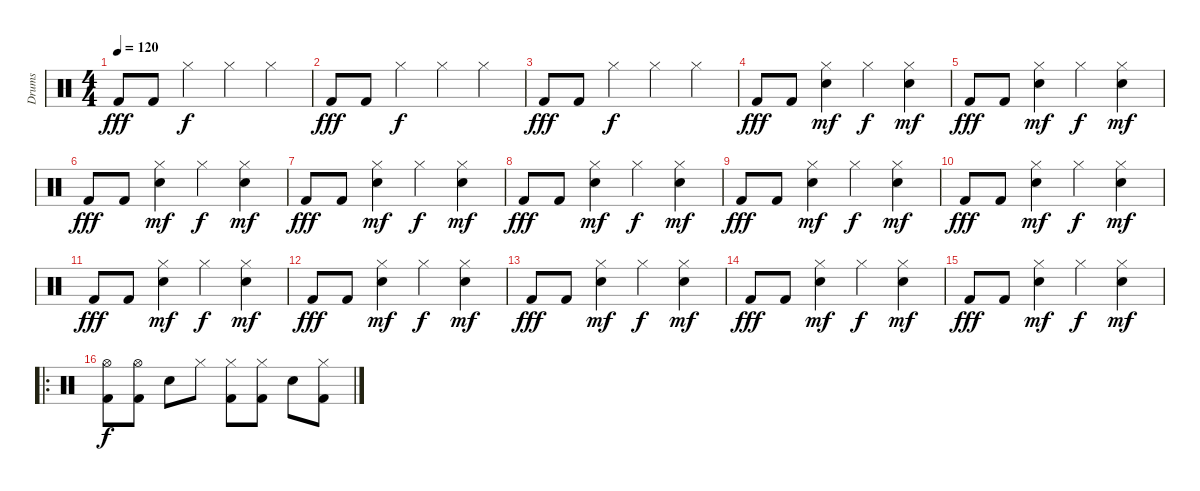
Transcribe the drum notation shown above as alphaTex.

\track ("Drums" "Drums") {instrument percussion}
\staff {score}
\articulation defaults
\ts (4 4)
\tempo 120
\clef neutral
\ks c "Kick (hit) 2".8{dy fff} "Kick (hit) 2".8 "Hi-Hat (closed)".4{dy f} "Hi-Hat (closed)".4 "Hi-Hat (closed)".4
|
"Kick (hit) 2".8{dy fff} "Kick (hit) 2".8 "Hi-Hat (closed)".4{dy f} "Hi-Hat (closed)".4 "Hi-Hat (closed)".4 |
"Kick (hit) 2".8{dy fff} "Kick (hit) 2".8 "Hi-Hat (closed)".4{dy f} "Hi-Hat (closed)".4 "Hi-Hat (closed)".4 |
"Kick (hit) 2".8{dy fff} "Kick (hit) 2".8 ("Hi-Hat (closed)" "Electric Snare (hit)").4{dy mf} "Hi-Hat (closed)".4{dy f} ("Hi-Hat (closed)" "Electric Snare (hit)").4{dy mf} |
"Kick (hit) 2".8{dy fff} "Kick (hit) 2".8 ("Hi-Hat (closed)" "Electric Snare (hit)").4{dy mf} "Hi-Hat (closed)".4{dy f} ("Hi-Hat (closed)" "Electric Snare (hit)").4{dy mf} |
"Kick (hit) 2".8{dy fff} "Kick (hit) 2".8 ("Hi-Hat (closed)" "Electric Snare (hit)").4{dy mf} "Hi-Hat (closed)".4{dy f} ("Hi-Hat (closed)" "Electric Snare (hit)").4{dy mf} |
"Kick (hit) 2".8{dy fff} "Kick (hit) 2".8 ("Hi-Hat (closed)" "Electric Snare (hit)").4{dy mf} "Hi-Hat (closed)".4{dy f} ("Hi-Hat (closed)" "Electric Snare (hit)").4{dy mf} |
"Kick (hit) 2".8{dy fff} "Kick (hit) 2".8 ("Hi-Hat (closed)" "Electric Snare (hit)").4{dy mf} "Hi-Hat (closed)".4{dy f} ("Hi-Hat (closed)" "Electric Snare (hit)").4{dy mf} |
"Kick (hit) 2".8{dy fff} "Kick (hit) 2".8 ("Hi-Hat (closed)" "Electric Snare (hit)").4{dy mf} "Hi-Hat (closed)".4{dy f} ("Hi-Hat (closed)" "Electric Snare (hit)").4{dy mf} |
"Kick (hit) 2".8{dy fff} "Kick (hit) 2".8 ("Hi-Hat (closed)" "Electric Snare (hit)").4{dy mf} "Hi-Hat (closed)".4{dy f} ("Hi-Hat (closed)" "Electric Snare (hit)").4{dy mf} |
"Kick (hit) 2".8{dy fff} "Kick (hit) 2".8 ("Hi-Hat (closed)" "Electric Snare (hit)").4{dy mf} "Hi-Hat (closed)".4{dy f} ("Hi-Hat (closed)" "Electric Snare (hit)").4{dy mf} |
"Kick (hit) 2".8{dy fff} "Kick (hit) 2".8 ("Hi-Hat (closed)" "Electric Snare (hit)").4{dy mf} "Hi-Hat (closed)".4{dy f} ("Hi-Hat (closed)" "Electric Snare (hit)").4{dy mf} |
"Kick (hit) 2".8{dy fff} "Kick (hit) 2".8 ("Hi-Hat (closed)" "Electric Snare (hit)").4{dy mf} "Hi-Hat (closed)".4{dy f} ("Hi-Hat (closed)" "Electric Snare (hit)").4{dy mf} |
"Kick (hit) 2".8{dy fff} "Kick (hit) 2".8 ("Hi-Hat (closed)" "Electric Snare (hit)").4{dy mf} "Hi-Hat (closed)".4{dy f} ("Hi-Hat (closed)" "Electric Snare (hit)").4{dy mf} |
"Kick (hit) 2".8{dy fff} "Kick (hit) 2".8 ("Hi-Hat (closed)" "Electric Snare (hit)").4{dy mf} "Hi-Hat (closed)".4{dy f} ("Hi-Hat (closed)" "Electric Snare (hit)").4{dy mf} |
\ro
("Hi-Hat (open)" "Kick (hit) 2").8{dy f} ("Hi-Hat (open)" "Kick (hit) 2").8 "Electric Snare (hit)".8 "Hi-Hat (closed)".8 ("Hi-Hat (closed)" "Kick (hit) 2").8 ("Hi-Hat (closed)" "Kick (hit) 2").8 "Electric Snare (hit)".8 ("Hi-Hat (closed)" "Kick (hit) 2").8
